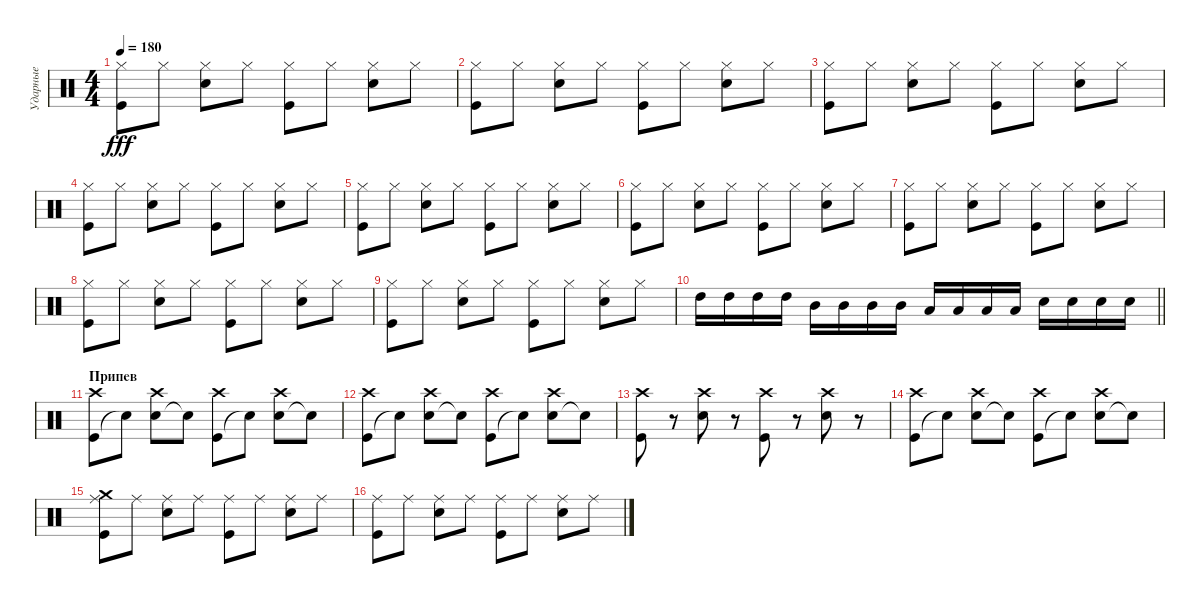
\track ("Ударные" "Ударные") {instrument percussion}
\staff {score}
\articulation defaults
\ts (4 4)
\tempo 180
\clef neutral
\ks c
("Hi-Hat (closed)" "Kick (hit)").8{dy fff} "Hi-Hat (closed)".8 ("Hi-Hat (closed)" "Electric Snare (hit)").8 "Hi-Hat (closed)".8 ("Hi-Hat (closed)" "Kick (hit)").8 "Hi-Hat (closed)".8 ("Hi-Hat (closed)" "Electric Snare (hit)").8 "Hi-Hat (closed)".8 |
("Hi-Hat (closed)" "Kick (hit)").8 "Hi-Hat (closed)".8 ("Hi-Hat (closed)" "Electric Snare (hit)").8 "Hi-Hat (closed)".8 ("Hi-Hat (closed)" "Kick (hit)").8 "Hi-Hat (closed)".8 ("Hi-Hat (closed)" "Electric Snare (hit)").8 "Hi-Hat (closed)".8 |
("Hi-Hat (closed)" "Kick (hit)").8 "Hi-Hat (closed)".8 ("Hi-Hat (closed)" "Electric Snare (hit)").8 "Hi-Hat (closed)".8 ("Hi-Hat (closed)" "Kick (hit)").8 "Hi-Hat (closed)".8 ("Hi-Hat (closed)" "Electric Snare (hit)").8 "Hi-Hat (closed)".8 |
("Hi-Hat (closed)" "Kick (hit)").8 "Hi-Hat (closed)".8 ("Hi-Hat (closed)" "Electric Snare (hit)").8 "Hi-Hat (closed)".8 ("Hi-Hat (closed)" "Kick (hit)").8 "Hi-Hat (closed)".8 ("Hi-Hat (closed)" "Electric Snare (hit)").8 "Hi-Hat (closed)".8 |
("Hi-Hat (closed)" "Kick (hit)").8 "Hi-Hat (closed)".8 ("Hi-Hat (closed)" "Electric Snare (hit)").8 "Hi-Hat (closed)".8 ("Hi-Hat (closed)" "Kick (hit)").8 "Hi-Hat (closed)".8 ("Hi-Hat (closed)" "Electric Snare (hit)").8 "Hi-Hat (closed)".8 |
("Hi-Hat (closed)" "Kick (hit)").8 "Hi-Hat (closed)".8 ("Hi-Hat (closed)" "Electric Snare (hit)").8 "Hi-Hat (closed)".8 ("Hi-Hat (closed)" "Kick (hit)").8 "Hi-Hat (closed)".8 ("Hi-Hat (closed)" "Electric Snare (hit)").8 "Hi-Hat (closed)".8 |
("Hi-Hat (closed)" "Kick (hit)").8 "Hi-Hat (closed)".8 ("Hi-Hat (closed)" "Electric Snare (hit)").8 "Hi-Hat (closed)".8 ("Hi-Hat (closed)" "Kick (hit)").8 "Hi-Hat (closed)".8 ("Hi-Hat (closed)" "Electric Snare (hit)").8 "Hi-Hat (closed)".8 |
("Hi-Hat (closed)" "Kick (hit)").8 "Hi-Hat (closed)".8 ("Hi-Hat (closed)" "Electric Snare (hit)").8 "Hi-Hat (closed)".8 ("Hi-Hat (closed)" "Kick (hit)").8 "Hi-Hat (closed)".8 ("Hi-Hat (closed)" "Electric Snare (hit)").8 "Hi-Hat (closed)".8 |
("Hi-Hat (closed)" "Kick (hit)").8 "Hi-Hat (closed)".8 ("Hi-Hat (closed)" "Electric Snare (hit)").8 "Hi-Hat (closed)".8 ("Hi-Hat (closed)" "Kick (hit)").8 "Hi-Hat (closed)".8 ("Hi-Hat (closed)" "Electric Snare (hit)").8 "Hi-Hat (closed)".8 |
\barLineRight lightlight "High Tom (hit)".16 "High Tom (hit)".16 "High Tom (hit)".16 "High Tom (hit)".16 "Mid Tom (hit)".16 "Mid Tom (hit)".16 "Mid Tom (hit)".16 "Mid Tom (hit)".16 "Low Tom (hit)".16 "Low Tom (hit)".16 "Low Tom (hit)".16 "Low Tom (hit)".16 "Electric Snare (hit)".16 "Electric Snare (hit)".16 "Electric Snare (hit)".16 "Electric Snare (hit)".16
|
\section ("" "Припев")
("Kick (hit)" "Crash high (hit)").8 "Snare (hit)"{t}.8 ("Electric Snare (hit)" "Crash high (hit)").8 "Snare (hit)"{t}.8 ("Kick (hit)" "Crash high (hit)").8 "Snare (hit)"{t}.8 ("Electric Snare (hit)" "Crash high (hit)").8 "Snare (hit)"{t}.8 |
("Kick (hit)" "Crash high (hit)").8 "Snare (hit)"{t}.8 ("Electric Snare (hit)" "Crash high (hit)").8 "Snare (hit)"{t}.8 ("Kick (hit)" "Crash high (hit)").8 "Snare (hit)"{t}.8 ("Electric Snare (hit)" "Crash high (hit)").8 "Snare (hit)"{t}.8 |
("Kick (hit)" "Crash high (hit)").8 r.8 ("Electric Snare (hit)" "Crash high (hit)").8 r.8 ("Kick (hit)" "Crash high (hit)").8 r.8 ("Electric Snare (hit)" "Crash high (hit)").8 r.8 |
("Kick (hit)" "Crash high (hit)").8 "Snare (hit)"{t}.8 ("Electric Snare (hit)" "Crash high (hit)").8 "Snare (hit)"{t}.8 ("Kick (hit)" "Crash high (hit)").8 "Snare (hit)"{t}.8 ("Electric Snare (hit)" "Crash high (hit)").8 "Snare (hit)"{t}.8 |
("Kick (hit)" "Ride (middle)" "Crash medium (hit)").8 "Ride (middle)".8 ("Electric Snare (hit)" "Ride (middle)").8 "Ride (middle)".8 ("Kick (hit)" "Ride (middle)").8 "Ride (middle)".8 ("Electric Snare (hit)" "Ride (middle)").8 "Ride (middle)".8 |
("Kick (hit)" "Ride (middle)").8 "Ride (middle)".8 ("Electric Snare (hit)" "Ride (middle)").8 "Ride (middle)".8 ("Kick (hit)" "Ride (middle)").8 "Ride (middle)".8 ("Electric Snare (hit)" "Ride (middle)").8 "Ride (middle)".8
